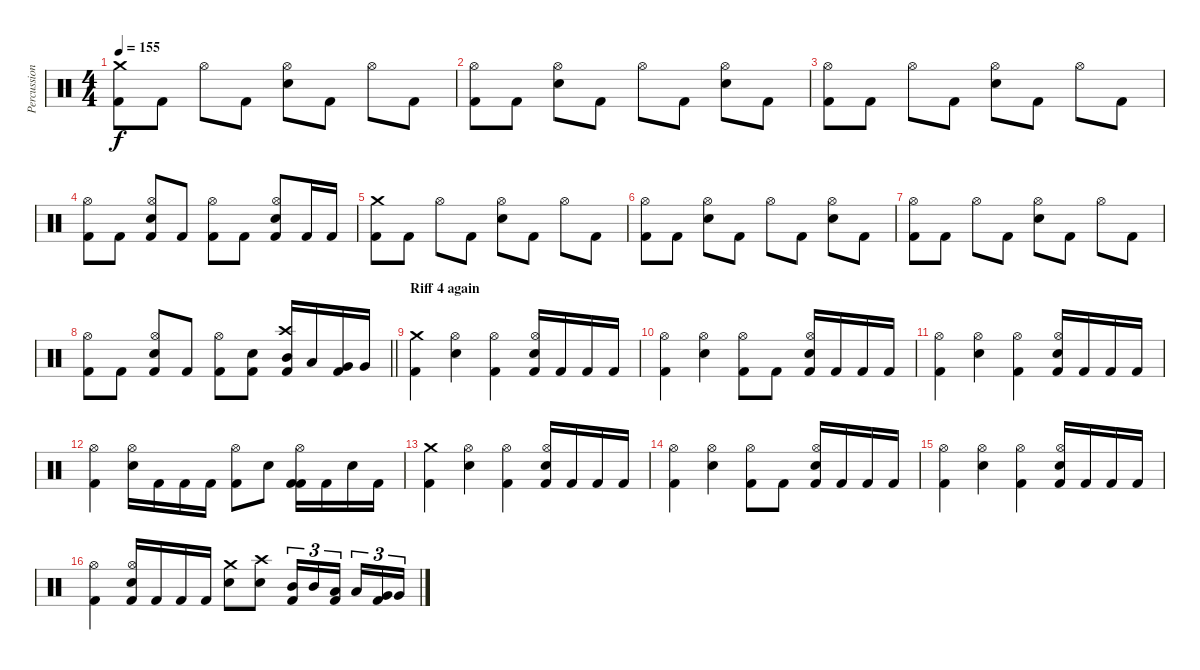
\track ("Percussion" "Percussion") {instrument percussion}
\staff {score}
\articulation defaults
\ts (4 4)
\tempo 155
\clef neutral
\ks c
("Crash medium (hit)" "Kick (hit) 2").8{dy f} "Kick (hit) 2".8 "Hi-Hat (open)".8 "Kick (hit) 2".8 ("Hi-Hat (open)" "Snare (hit) 2").8 "Kick (hit) 2".8 "Hi-Hat (open)".8 "Kick (hit) 2".8 |
("Hi-Hat (open)" "Kick (hit) 2").8 "Kick (hit) 2".8 ("Hi-Hat (open)" "Snare (hit) 2").8 "Kick (hit) 2".8 "Hi-Hat (open)".8 "Kick (hit) 2".8 ("Hi-Hat (open)" "Snare (hit) 2").8 "Kick (hit) 2".8 |
("Hi-Hat (open)" "Kick (hit) 2").8 "Kick (hit) 2".8 "Hi-Hat (open)".8 "Kick (hit) 2".8 ("Hi-Hat (open)" "Snare (hit) 2").8 "Kick (hit) 2".8 "Hi-Hat (open)".8 "Kick (hit) 2".8 |
("Hi-Hat (open)" "Kick (hit) 2").8 "Kick (hit) 2".8 ("Kick (hit) 2" "Hi-Hat (open)" "Snare (hit) 2").8 "Kick (hit) 2".8 ("Hi-Hat (open)" "Kick (hit) 2").8 "Kick (hit) 2".8 ("Kick (hit) 2" "Hi-Hat (open)" "Snare (hit) 2").8 "Kick (hit) 2".16 "Kick (hit) 2".16 |
("Crash medium (hit)" "Kick (hit) 2").8 "Kick (hit) 2".8 "Hi-Hat (open)".8 "Kick (hit) 2".8 ("Hi-Hat (open)" "Snare (hit) 2").8 "Kick (hit) 2".8 "Hi-Hat (open)".8 "Kick (hit) 2".8 |
("Hi-Hat (open)" "Kick (hit) 2").8 "Kick (hit) 2".8 ("Hi-Hat (open)" "Snare (hit) 2").8 "Kick (hit) 2".8 "Hi-Hat (open)".8 "Kick (hit) 2".8 ("Hi-Hat (open)" "Snare (hit) 2").8 "Kick (hit) 2".8 |
("Hi-Hat (open)" "Kick (hit) 2").8 "Kick (hit) 2".8 "Hi-Hat (open)".8 "Kick (hit) 2".8 ("Hi-Hat (open)" "Snare (hit) 2").8 "Kick (hit) 2".8 "Hi-Hat (open)".8 "Kick (hit) 2".8 |
\barLineRight lightlight
("Hi-Hat (open)" "Kick (hit) 2").8 "Kick (hit) 2".8 ("Kick (hit) 2" "Hi-Hat (open)" "Snare (hit) 2").8 "Kick (hit) 2".8 ("Hi-Hat (open)" "Kick (hit) 2").8 ("Kick (hit) 2" "Snare (hit) 2").8 ("Kick (hit) 2" "Crash high (hit)" "Mid Tom (hit)").16 "Low Tom (hit)".16 ("Kick (hit) 2" "Very Low Tom (hit)").16 "Very Low Tom (hit)".16 |
\section ("" "Riff 4 again")
("Crash medium (hit)" "Kick (hit) 2").4 ("Hi-Hat (open)" "Snare (hit) 2").4 ("Hi-Hat (open)" "Kick (hit) 2").4 ("Kick (hit) 2" "Hi-Hat (open)" "Snare (hit) 2").16 "Kick (hit) 2".16 "Kick (hit) 2".16 "Kick (hit) 2".16 |
("Hi-Hat (open)" "Kick (hit) 2").4 ("Hi-Hat (open)" "Snare (hit) 2").4 ("Hi-Hat (open)" "Kick (hit) 2").8 "Kick (hit) 2".8 ("Kick (hit) 2" "Hi-Hat (open)" "Snare (hit) 2").16 "Kick (hit) 2".16 "Kick (hit) 2".16 "Kick (hit) 2".16 |
("Hi-Hat (open)" "Kick (hit) 2").4 ("Hi-Hat (open)" "Snare (hit) 2").4 ("Hi-Hat (open)" "Kick (hit) 2").4 ("Kick (hit) 2" "Hi-Hat (open)" "Snare (hit) 2").16 "Kick (hit) 2".16 "Kick (hit) 2".16 "Kick (hit) 2".16 |
("Hi-Hat (open)" "Kick (hit) 2").4 ("Hi-Hat (open)" "Snare (hit) 2").16 "Kick (hit) 2".16 "Kick (hit) 2".16 "Kick (hit) 2".16 ("Hi-Hat (open)" "Kick (hit) 2").8 "Snare (hit) 2".8 ("Kick (hit) 2" "Hi-Hat (open)" "Kick (hit) 2").16 "Kick (hit) 2".16 "Snare (hit) 2".16 "Kick (hit) 2".16 |
("Crash medium (hit)" "Kick (hit) 2").4 ("Hi-Hat (open)" "Snare (hit) 2").4 ("Hi-Hat (open)" "Kick (hit) 2").4 ("Kick (hit) 2" "Hi-Hat (open)" "Snare (hit) 2").16 "Kick (hit) 2".16 "Kick (hit) 2".16 "Kick (hit) 2".16 |
("Hi-Hat (open)" "Kick (hit) 2").4 ("Hi-Hat (open)" "Snare (hit) 2").4 ("Hi-Hat (open)" "Kick (hit) 2").8 "Kick (hit) 2".8 ("Kick (hit) 2" "Hi-Hat (open)" "Snare (hit) 2").16 "Kick (hit) 2".16 "Kick (hit) 2".16 "Kick (hit) 2".16 |
("Hi-Hat (open)" "Kick (hit) 2").4 ("Hi-Hat (open)" "Snare (hit) 2").4 ("Hi-Hat (open)" "Kick (hit) 2").4 ("Kick (hit) 2" "Hi-Hat (open)" "Snare (hit) 2").16 "Kick (hit) 2".16 "Kick (hit) 2".16 "Kick (hit) 2".16 |
("Hi-Hat (open)" "Kick (hit) 2").4 ("Kick (hit) 2" "Hi-Hat (open)" "Snare (hit) 2").16 "Kick (hit) 2".16 "Kick (hit) 2".16 "Kick (hit) 2".16 ("Crash medium (hit)" "Snare (hit) 2").8 ("Crash high (hit)" "Snare (hit) 2").8 ("Kick (hit) 2" "Mid Tom (hit)").16{tu (3 2)} "Mid Tom (hit)".16{tu (3 2)} ("Kick (hit) 2" "Low Tom (hit)").16{tu (3 2)} "Low Tom (hit)".16{tu (3 2)} ("Kick (hit) 2" "Very Low Tom (hit)").16{tu (3 2)} "Very Low Tom (hit)".16{tu (3 2)}
